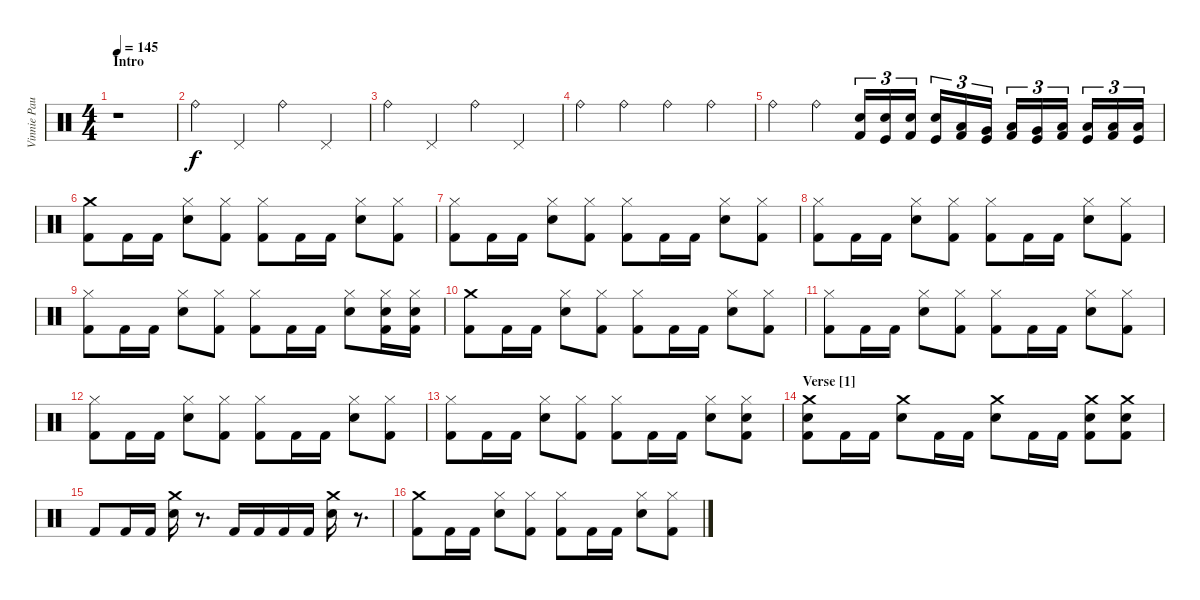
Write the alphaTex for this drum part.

\track ("Vinnie Paul" "Vinnie Pau") {instrument percussion}
\staff {score}
\articulation defaults
\ts (4 4)
\section ("" "Intro")
\tempo 145
\clef neutral
\ks c
r.1{dy f} |
"Ride (bell)".4 "Pedal Hi-Hat (hit)".4 "Ride (bell)".4 "Pedal Hi-Hat (hit)".4 |
"Ride (bell)".4 "Pedal Hi-Hat (hit)".4 "Ride (bell)".4 "Pedal Hi-Hat (hit)".4 |
"Ride (bell)".4 "Ride (bell)".4 "Ride (bell)".4 "Ride (bell)".4 |
"Ride (bell)".4 "Ride (bell)".4 ("Snare (hit) 2" "Kick (hit) 2").16{tu (3 2) balance 2} ("Snare (hit) 2" "Kick (hit)").16{tu (3 2) balance 3} ("Snare (hit) 2" "Kick (hit) 2").16{tu (3 2) balance 4} ("Snare (hit) 2" "Kick (hit)").16{tu (3 2) balance 5} ("Low Tom (hit)" "Kick (hit) 2").16{tu (3 2) balance 6} ("Very Low Tom (hit)" "Kick (hit)").16{tu (3 2) balance 7} ("Low Tom (hit)" "Kick (hit) 2").16{tu (3 2) balance 9} ("Very Low Tom (hit)" "Kick (hit)").16{tu (3 2) balance 10} ("Low Floor Tom (hit)" "Kick (hit) 2").16{tu (3 2) balance 11} ("Low Floor Tom (hit)" "Kick (hit)").16{tu (3 2) balance 12} ("Low Floor Tom (hit)" "Kick (hit) 2").16{tu (3 2) balance 13} ("Low Floor Tom (hit)" "Kick (hit)").16{tu (3 2) balance 16} |
("Crash medium (hit)" "Kick (hit) 2").8{balance 8} "Kick (hit) 2".16 "Kick (hit) 2".16 ("Hi-Hat (closed)" "Snare (hit) 2").8 ("Hi-Hat (closed)" "Kick (hit) 2").8 ("Hi-Hat (closed)" "Kick (hit) 2").8 "Kick (hit) 2".16 "Kick (hit) 2".16 ("Hi-Hat (closed)" "Snare (hit) 2").8 ("Hi-Hat (closed)" "Kick (hit) 2").8 |
("Hi-Hat (closed)" "Kick (hit) 2").8 "Kick (hit) 2".16 "Kick (hit) 2".16 ("Hi-Hat (closed)" "Snare (hit) 2").8 ("Hi-Hat (closed)" "Kick (hit) 2").8 ("Hi-Hat (closed)" "Kick (hit) 2").8 "Kick (hit) 2".16 "Kick (hit) 2".16 ("Hi-Hat (closed)" "Snare (hit) 2").8 ("Hi-Hat (closed)" "Kick (hit) 2").8 |
("Hi-Hat (closed)" "Kick (hit) 2").8 "Kick (hit) 2".16 "Kick (hit) 2".16 ("Hi-Hat (closed)" "Snare (hit) 2").8 ("Hi-Hat (closed)" "Kick (hit) 2").8 ("Hi-Hat (closed)" "Kick (hit) 2").8 "Kick (hit) 2".16 "Kick (hit) 2".16 ("Hi-Hat (closed)" "Snare (hit) 2").8 ("Hi-Hat (closed)" "Kick (hit) 2").8 |
("Hi-Hat (closed)" "Kick (hit) 2").8 "Kick (hit) 2".16 "Kick (hit) 2".16 ("Hi-Hat (closed)" "Snare (hit) 2").8 ("Hi-Hat (closed)" "Kick (hit) 2").8 ("Hi-Hat (closed)" "Kick (hit) 2").8 "Kick (hit) 2".16 "Kick (hit) 2".16 ("Hi-Hat (closed)" "Snare (hit) 2").8 ("Hi-Hat (closed)" "Snare (hit) 2" "Kick (hit) 2").16 ("Hi-Hat (closed)" "Snare (hit) 2" "Kick (hit) 2").16 |
("Crash medium (hit)" "Kick (hit) 2").8 "Kick (hit) 2".16 "Kick (hit) 2".16 ("Hi-Hat (closed)" "Snare (hit) 2").8 ("Hi-Hat (closed)" "Kick (hit) 2").8 ("Hi-Hat (closed)" "Kick (hit) 2").8 "Kick (hit) 2".16 "Kick (hit) 2".16 ("Hi-Hat (closed)" "Snare (hit) 2").8 ("Hi-Hat (closed)" "Kick (hit) 2").8 |
("Hi-Hat (closed)" "Kick (hit) 2").8 "Kick (hit) 2".16 "Kick (hit) 2".16 ("Hi-Hat (closed)" "Snare (hit) 2").8 ("Hi-Hat (closed)" "Kick (hit) 2").8 ("Hi-Hat (closed)" "Kick (hit) 2").8 "Kick (hit) 2".16 "Kick (hit) 2".16 ("Hi-Hat (closed)" "Snare (hit) 2").8 ("Hi-Hat (closed)" "Kick (hit) 2").8 |
("Hi-Hat (closed)" "Kick (hit) 2").8 "Kick (hit) 2".16 "Kick (hit) 2".16 ("Hi-Hat (closed)" "Snare (hit) 2").8 ("Hi-Hat (closed)" "Kick (hit) 2").8 ("Hi-Hat (closed)" "Kick (hit) 2").8 "Kick (hit) 2".16 "Kick (hit) 2".16 ("Hi-Hat (closed)" "Snare (hit) 2").8 ("Hi-Hat (closed)" "Kick (hit) 2").8 |
("Hi-Hat (closed)" "Kick (hit) 2").8 "Kick (hit) 2".16 "Kick (hit) 2".16 ("Hi-Hat (closed)" "Snare (hit) 2").8 ("Hi-Hat (closed)" "Kick (hit) 2").8 ("Hi-Hat (closed)" "Kick (hit) 2").8 "Kick (hit) 2".16 "Kick (hit) 2".16 ("Hi-Hat (closed)" "Snare (hit) 2").8 ("Hi-Hat (closed)" "Snare (hit) 2" "Kick (hit) 2").8 |
\section ("" "Verse [1]")
("Crash medium (hit)" "Snare (hit) 2" "Kick (hit) 2").8 "Kick (hit) 2".16 "Kick (hit) 2".16 ("Crash medium (hit)" "Snare (hit) 2").8 "Kick (hit) 2".16 "Kick (hit) 2".16 ("Crash medium (hit)" "Snare (hit) 2").8 "Kick (hit) 2".16 "Kick (hit) 2".16 ("Crash medium (hit)" "Snare (hit) 2" "Kick (hit) 2").8 ("Crash medium (hit)" "Snare (hit) 2" "Kick (hit) 2").8 |
"Kick (hit) 2".8 "Kick (hit) 2".16 "Kick (hit) 2".16 ("Crash medium (hit)" "Snare (hit) 2").16 r.8{d} "Kick (hit) 2".16 "Kick (hit) 2".16 "Kick (hit) 2".16 "Kick (hit) 2".16 ("Crash medium (hit)" "Snare (hit) 2").16 r.8{d} |
("Crash medium (hit)" "Kick (hit) 2").8 "Kick (hit) 2".16 "Kick (hit) 2".16 ("Hi-Hat (closed)" "Snare (hit) 2").8 ("Hi-Hat (closed)" "Kick (hit) 2").8 ("Hi-Hat (closed)" "Kick (hit) 2").8 "Kick (hit) 2".16 "Kick (hit) 2".16 ("Hi-Hat (closed)" "Snare (hit) 2").8 ("Hi-Hat (closed)" "Kick (hit) 2").8
